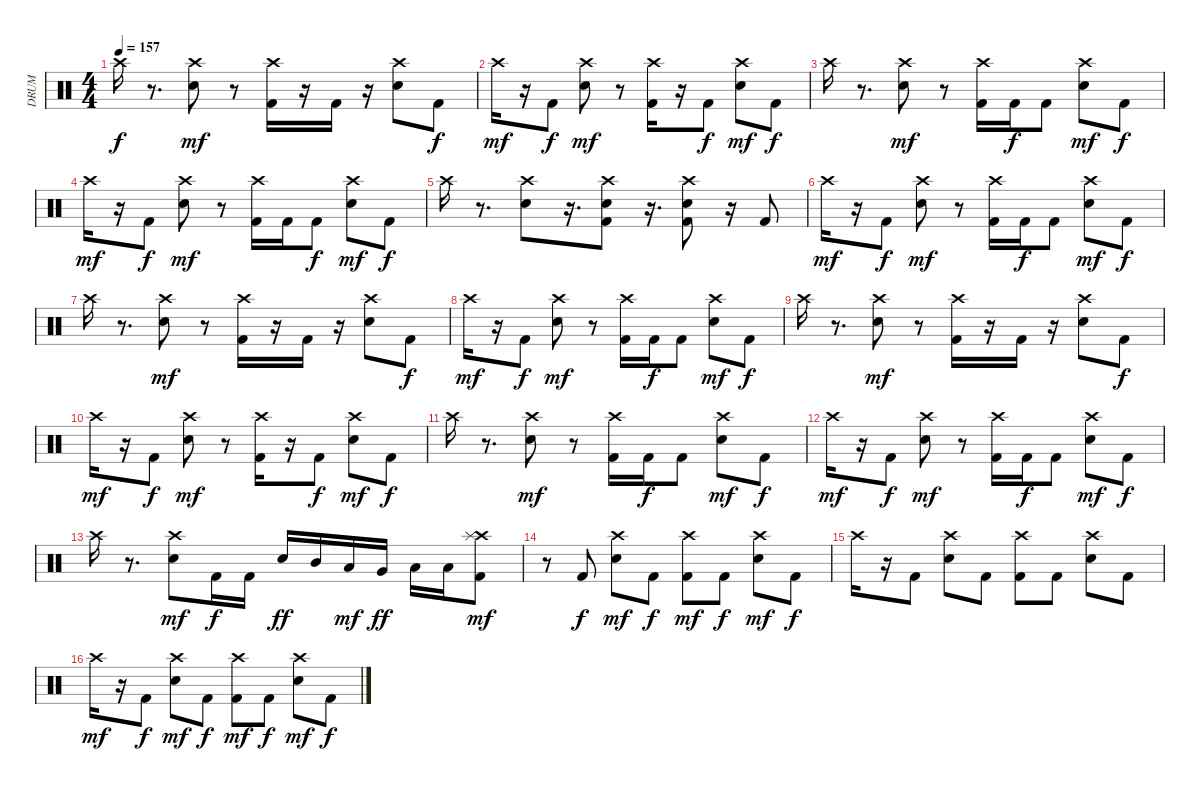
\track ("DRUM" "DRUM") {instrument percussion}
\staff {score}
\articulation defaults
\ts (4 4)
\tempo 157
\clef neutral
\ks c "Crash high (hit)".16{dy f}
r.8{d} ("Crash high (hit)" "Electric Snare (hit)").8{dy mf} r.8 ("Kick (hit) 2" "Crash high (hit)").16 r.16 "Kick (hit) 2".16 r.16 ("Crash high (hit)" "Electric Snare (hit)").8 "Kick (hit) 2".8{dy f} |
"Crash high (hit)".16{dy mf} r.16 "Kick (hit) 2".8{dy f} ("Crash high (hit)" "Electric Snare (hit)").8{dy mf} r.8 ("Crash high (hit)" "Kick (hit) 2").16 r.16 "Kick (hit) 2".8{dy f} ("Crash high (hit)" "Electric Snare (hit)").8{dy mf} "Kick (hit) 2".8{dy f} |
"Crash high (hit)".16 r.8{d} ("Crash high (hit)" "Electric Snare (hit)").8{dy mf} r.8 ("Kick (hit) 2" "Crash high (hit)").16 "Kick (hit) 2".16{dy f} "Kick (hit) 2".8 ("Crash high (hit)" "Electric Snare (hit)").8{dy mf} "Kick (hit) 2".8{dy f} |
"Crash high (hit)".16{dy mf} r.16 "Kick (hit) 2".8{dy f} ("Electric Snare (hit)" "Crash high (hit)").8{dy mf} r.8 ("Kick (hit) 2" "Crash high (hit)").16 "Kick (hit) 2".16 "Kick (hit) 2".8{dy f} ("Electric Snare (hit)" "Crash high (hit)").8{dy mf} "Kick (hit) 2".8{dy f} |
"Crash high (hit)".16 r.8{d} ("Crash high (hit)" "Electric Snare (hit)").8 r.16{d} ("Crash high (hit)" "Kick (hit) 2" "Electric Snare (hit)").8 r.16{d} ("Crash high (hit)" "Kick (hit) 2" "Electric Snare (hit)").8 r.16 "Kick (hit) 2".8 |
"Crash high (hit)".16{dy mf} r.16 "Kick (hit) 2".8{dy f} ("Crash high (hit)" "Electric Snare (hit)").8{dy mf} r.8 ("Crash high (hit)" "Kick (hit) 2").16 "Kick (hit) 2".16{dy f} "Kick (hit) 2".8 ("Crash high (hit)" "Electric Snare (hit)").8{dy mf} "Kick (hit) 2".8{dy f} |
"Crash high (hit)".16 r.8{d} ("Crash high (hit)" "Electric Snare (hit)").8{dy mf} r.8 ("Kick (hit) 2" "Crash high (hit)").16 r.16 "Kick (hit) 2".16 r.16 ("Crash high (hit)" "Electric Snare (hit)").8 "Kick (hit) 2".8{dy f} |
"Crash high (hit)".16{dy mf} r.16 "Kick (hit) 2".8{dy f} ("Crash high (hit)" "Electric Snare (hit)").8{dy mf} r.8 ("Crash high (hit)" "Kick (hit) 2").16 "Kick (hit) 2".16{dy f} "Kick (hit) 2".8 ("Crash high (hit)" "Electric Snare (hit)").8{dy mf} "Kick (hit) 2".8{dy f} |
"Crash high (hit)".16 r.8{d} ("Crash high (hit)" "Electric Snare (hit)").8{dy mf} r.8 ("Kick (hit) 2" "Crash high (hit)").16 r.16 "Kick (hit) 2".16 r.16 ("Crash high (hit)" "Electric Snare (hit)").8 "Kick (hit) 2".8{dy f} |
"Crash high (hit)".16{dy mf} r.16 "Kick (hit) 2".8{dy f} ("Crash high (hit)" "Electric Snare (hit)").8{dy mf} r.8 ("Crash high (hit)" "Kick (hit) 2").16 r.16 "Kick (hit) 2".8{dy f} ("Crash high (hit)" "Electric Snare (hit)").8{dy mf} "Kick (hit) 2".8{dy f} |
"Crash high (hit)".16 r.8{d} ("Crash high (hit)" "Electric Snare (hit)").8{dy mf} r.8 ("Kick (hit) 2" "Crash high (hit)").16 "Kick (hit) 2".16{dy f} "Kick (hit) 2".8 ("Crash high (hit)" "Electric Snare (hit)").8{dy mf} "Kick (hit) 2".8{dy f} |
"Crash high (hit)".16{dy mf} r.16 "Kick (hit) 2".8{dy f} ("Crash high (hit)" "Electric Snare (hit)").8{dy mf} r.8 ("Crash high (hit)" "Kick (hit) 2").16 "Kick (hit) 2".16{dy f} "Kick (hit) 2".8 ("Crash high (hit)" "Electric Snare (hit)").8{dy mf} "Kick (hit) 2".8{dy f} |
"Crash high (hit)".16 r.8{d} ("Crash high (hit)" "Electric Snare (hit)").8{dy mf} "Kick (hit) 2".16{dy f} "Kick (hit) 2".16 "Electric Snare (hit)".16{dy ff} "Mid Tom (hit)".16 "Low Tom (hit)".16{dy mf} "Very Low Tom (hit)".16{dy ff} "Low Floor Tom (hit)".16 "Low Floor Tom (hit)".16 ("Crash high (hit)" "Splash (hit)" "Kick (hit) 2").8{dy mf} |
r.8 "Kick (hit) 2".8{dy f} ("Electric Snare (hit)" "Crash high (hit)").8{dy mf} "Kick (hit) 2".8{dy f} ("Kick (hit) 2" "Crash high (hit)").8{dy mf} "Kick (hit) 2".8{dy f} ("Crash high (hit)" "Electric Snare (hit)").8{dy mf} "Kick (hit) 2".8{dy f} |
"Crash high (hit)".16 r.16 "Kick (hit) 2".8 ("Crash high (hit)" "Electric Snare (hit)").8 "Kick (hit) 2".8 ("Crash high (hit)" "Kick (hit) 2").8 "Kick (hit) 2".8 ("Electric Snare (hit)" "Crash high (hit)").8 "Kick (hit) 2".8 |
"Crash high (hit)".16{dy mf} r.16 "Kick (hit) 2".8{dy f} ("Crash high (hit)" "Electric Snare (hit)").8{dy mf} "Kick (hit) 2".8{dy f} ("Kick (hit) 2" "Crash high (hit)").8{dy mf} "Kick (hit) 2".8{dy f} ("Crash high (hit)" "Electric Snare (hit)").8{dy mf} "Kick (hit) 2".8{dy f}
